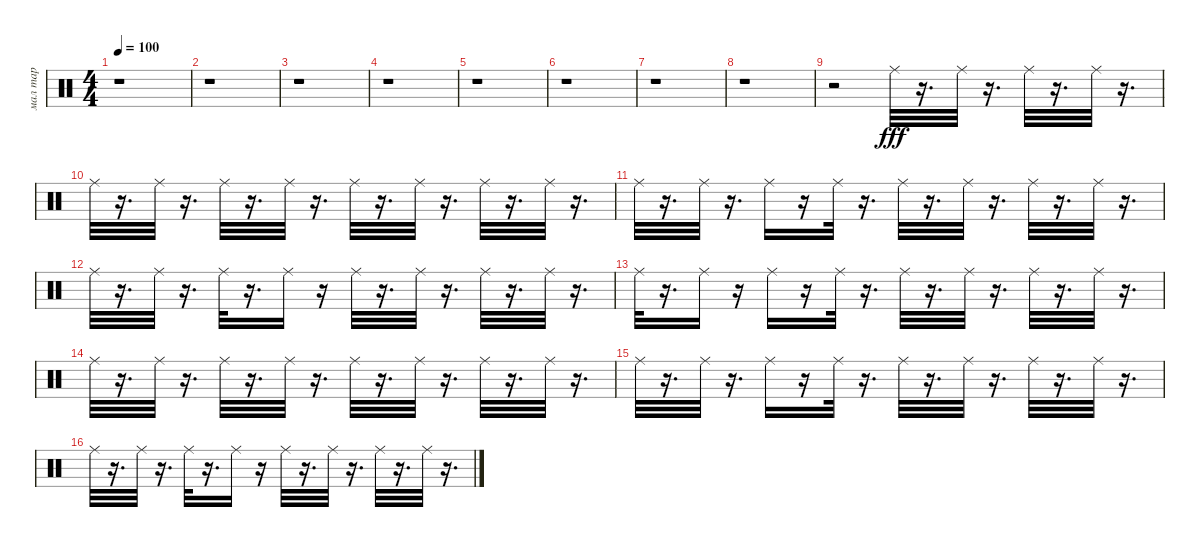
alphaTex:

\track ("мал тар" "мал тар") {instrument percussion}
\staff {score}
\articulation defaults
\ts (4 4)
\tempo 100
\clef neutral
\ks c
r.1{dy fff} |
r.1 |
r.1 |
r.1 |
r.1 |
r.1 |
r.1 |
r.1 |
r.2 "Ride (middle)".32 r.16{d} "Ride (middle)".32 r.16{d} "Ride (middle)".32 r.16{d} "Ride (middle)".32 r.16{d} |
"Ride (middle)".32 r.16{d} "Ride (middle)".32 r.16{d} "Ride (middle)".32 r.16{d} "Ride (middle)".32 r.16{d} "Ride (middle)".32 r.16{d} "Ride (middle)".32 r.16{d} "Ride (middle)".32 r.16{d} "Ride (middle)".32 r.16{d} |
"Ride (middle)".32 r.16{d} "Ride (middle)".32 r.16{d} "Ride (middle)".16 r.16 "Ride (middle)".32 r.16{d} "Ride (middle)".32 r.16{d} "Ride (middle)".32 r.16{d} "Ride (middle)".32 r.16{d} "Ride (middle)".32 r.16{d} |
"Ride (middle)".32 r.16{d} "Ride (middle)".32 r.16{d} "Ride (middle)".32 r.16{d} "Ride (middle)".16 r.16 "Ride (middle)".32 r.16{d} "Ride (middle)".32 r.16{d} "Ride (middle)".32 r.16{d} "Ride (middle)".32 r.16{d} |
"Ride (middle)".32 r.16{d} "Ride (middle)".16 r.16 "Ride (middle)".16 r.16 "Ride (middle)".32 r.16{d} "Ride (middle)".32 r.16{d} "Ride (middle)".32 r.16{d} "Ride (middle)".32 r.16{d} "Ride (middle)".32 r.16{d} |
"Ride (middle)".32 r.16{d} "Ride (middle)".32 r.16{d} "Ride (middle)".32 r.16{d} "Ride (middle)".32 r.16{d} "Ride (middle)".32 r.16{d} "Ride (middle)".32 r.16{d} "Ride (middle)".32 r.16{d} "Ride (middle)".32 r.16{d} |
"Ride (middle)".32 r.16{d} "Ride (middle)".32 r.16{d} "Ride (middle)".16 r.16 "Ride (middle)".32 r.16{d} "Ride (middle)".32 r.16{d} "Ride (middle)".32 r.16{d} "Ride (middle)".32 r.16{d} "Ride (middle)".32 r.16{d} |
"Ride (middle)".32 r.16{d} "Ride (middle)".32 r.16{d} "Ride (middle)".32 r.16{d} "Ride (middle)".16 r.16 "Ride (middle)".32 r.16{d} "Ride (middle)".32 r.16{d} "Ride (middle)".32 r.16{d} "Ride (middle)".32 r.16{d}
